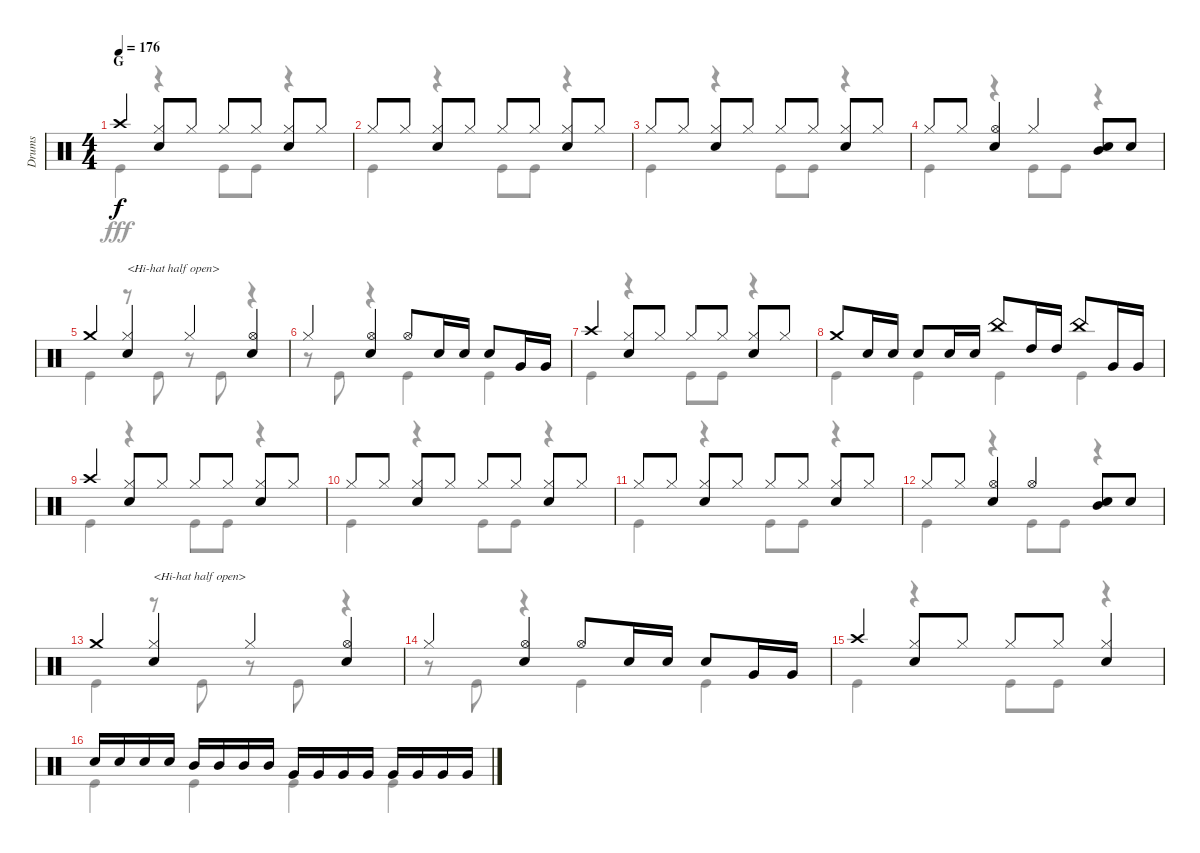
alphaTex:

\track ("Drums" "Drums") {instrument percussion}
\staff {score}
\articulation defaults
\voice
\ts (4 4)
\section ("" "G")
\tempo 176
\clef neutral
\ks c "Crash high (hit)".4{dy f}
("Hi-Hat (closed)" "Snare (hit) 2").8 "Hi-Hat (closed)".8 "Hi-Hat (closed)".8 "Hi-Hat (closed)".8 ("Hi-Hat (closed)" "Snare (hit) 2").8 "Hi-Hat (closed)".8 |
"Hi-Hat (closed)".8 "Hi-Hat (closed)".8 ("Hi-Hat (closed)" "Snare (hit) 2").8 "Hi-Hat (closed)".8 "Hi-Hat (closed)".8 "Hi-Hat (closed)".8 ("Hi-Hat (closed)" "Snare (hit) 2").8 "Hi-Hat (closed)".8 |
"Hi-Hat (closed)".8 "Hi-Hat (closed)".8 ("Hi-Hat (closed)" "Snare (hit) 2").8 "Hi-Hat (closed)".8 "Hi-Hat (closed)".8 "Hi-Hat (closed)".8 ("Hi-Hat (closed)" "Snare (hit) 2").8 "Hi-Hat (closed)".8 |
"Hi-Hat (closed)".8 "Hi-Hat (closed)".8 ("Hi-Hat (open)" "Snare (hit) 2").4 "Hi-Hat (closed)".4 ("Mid Tom (hit)" "Snare (hit) 2").8 "Snare (hit) 2".8 |
"Crash medium (hit)".4 ("Hi-Hat (closed)" "Snare (hit) 2").4{txt "<Hi-hat half open>"} "Hi-Hat (closed)".4 ("Hi-Hat (open)" "Snare (hit) 2").4 |
"Hi-Hat (closed)".4 ("Hi-Hat (open)" "Snare (hit) 2").4 "Hi-Hat (open)".8 "Snare (hit) 2".16 "Snare (hit) 2".16 "Snare (hit) 2".8 "Very Low Tom (hit)".16 "Very Low Tom (hit)".16 |
"Crash high (hit)".4 ("Hi-Hat (closed)" "Snare (hit) 2").8 "Hi-Hat (closed)".8 "Hi-Hat (closed)".8 "Hi-Hat (closed)".8 ("Hi-Hat (closed)" "Snare (hit) 2").8 "Hi-Hat (closed)".8 |
"Crash medium (hit)".8 "Snare (hit) 2".16 "Snare (hit) 2".16 "Snare (hit) 2".8 "Snare (hit) 2".16 "Snare (hit) 2".16 "China (hit)".8 "High Tom (hit)".16 "High Tom (hit)".16 "China (hit)".8 "Very Low Tom (hit)".16 "Very Low Tom (hit)".16 |
"Crash high (hit)".4 ("Hi-Hat (closed)" "Snare (hit) 2").8 "Hi-Hat (closed)".8 "Hi-Hat (closed)".8 "Hi-Hat (closed)".8 ("Hi-Hat (closed)" "Snare (hit) 2").8 "Hi-Hat (closed)".8 |
"Hi-Hat (closed)".8 "Hi-Hat (closed)".8 ("Hi-Hat (closed)" "Snare (hit) 2").8 "Hi-Hat (closed)".8 "Hi-Hat (closed)".8 "Hi-Hat (closed)".8 ("Hi-Hat (closed)" "Snare (hit) 2").8 "Hi-Hat (closed)".8 |
"Hi-Hat (closed)".8 "Hi-Hat (closed)".8 ("Hi-Hat (closed)" "Snare (hit) 2").8 "Hi-Hat (closed)".8 "Hi-Hat (closed)".8 "Hi-Hat (closed)".8 ("Hi-Hat (closed)" "Snare (hit) 2").8 "Hi-Hat (closed)".8 |
"Hi-Hat (closed)".8 "Hi-Hat (closed)".8 ("Hi-Hat (open)" "Snare (hit) 2").4 "Hi-Hat (open)".4 ("Mid Tom (hit)" "Snare (hit) 2").8 "Snare (hit) 2".8 |
"Crash medium (hit)".4 ("Hi-Hat (closed)" "Snare (hit) 2").4{txt "<Hi-hat half open>"} "Hi-Hat (closed)".4 ("Hi-Hat (open)" "Snare (hit) 2").4 |
"Hi-Hat (closed)".4 ("Hi-Hat (open)" "Snare (hit) 2").4 "Hi-Hat (open)".8 "Snare (hit) 2".16 "Snare (hit) 2".16 "Snare (hit) 2".8 "Very Low Tom (hit)".16 "Very Low Tom (hit)".16 |
"Crash high (hit)".4 ("Hi-Hat (closed)" "Snare (hit) 2").8 "Hi-Hat (closed)".8 "Hi-Hat (closed)".8 "Hi-Hat (closed)".8 ("Hi-Hat (closed)" "Snare (hit) 2").4 |
"Snare (hit) 2".16 "Snare (hit) 2".16 "Snare (hit) 2".16 "Snare (hit) 2".16 "Mid Tom (hit)".16 "Mid Tom (hit)".16 "Mid Tom (hit)".16 "Mid Tom (hit)".16 "Very Low Tom (hit)".16 "Very Low Tom (hit)".16 "Very Low Tom (hit)".16 "Very Low Tom (hit)".16 "Very Low Tom (hit)".16 "Very Low Tom (hit)".16 "Very Low Tom (hit)".16 "Very Low Tom (hit)".16
\voice
\clef neutral
\ottava regular
\simile none
\ks c "Kick (hit)".4{dy fff}
r.4 "Kick (hit)".8 "Kick (hit)".8 r.4 |
"Kick (hit)".4 r.4 "Kick (hit)".8 "Kick (hit)".8 r.4 |
"Kick (hit)".4 r.4 "Kick (hit)".8 "Kick (hit)".8 r.4 |
"Kick (hit)".4 r.4 "Kick (hit)".8 "Kick (hit)".8 r.4 |
"Kick (hit)".4 r.8 "Kick (hit)".8 r.8 "Kick (hit)".8 r.4 |
r.8 "Kick (hit)".8 r.4 "Kick (hit)".4 "Kick (hit)".4 |
"Kick (hit)".4 r.4 "Kick (hit)".8 "Kick (hit)".8 r.4 |
"Kick (hit)".4 "Kick (hit)".4 "Kick (hit)".4 "Kick (hit)".4 |
"Kick (hit)".4 r.4 "Kick (hit)".8 "Kick (hit)".8 r.4 |
"Kick (hit)".4 r.4 "Kick (hit)".8 "Kick (hit)".8 r.4 |
"Kick (hit)".4 r.4 "Kick (hit)".8 "Kick (hit)".8 r.4 |
"Kick (hit)".4 r.4 "Kick (hit)".8 "Kick (hit)".8 r.4 |
"Kick (hit)".4 r.8 "Kick (hit)".8 r.8 "Kick (hit)".8 r.4 |
r.8 "Kick (hit)".8 r.4 "Kick (hit)".4 "Kick (hit)".4 |
"Kick (hit)".4 r.4 "Kick (hit)".8 "Kick (hit)".8 r.4 |
"Kick (hit)".4 "Kick (hit)".4 "Kick (hit)".4 "Kick (hit)".4
